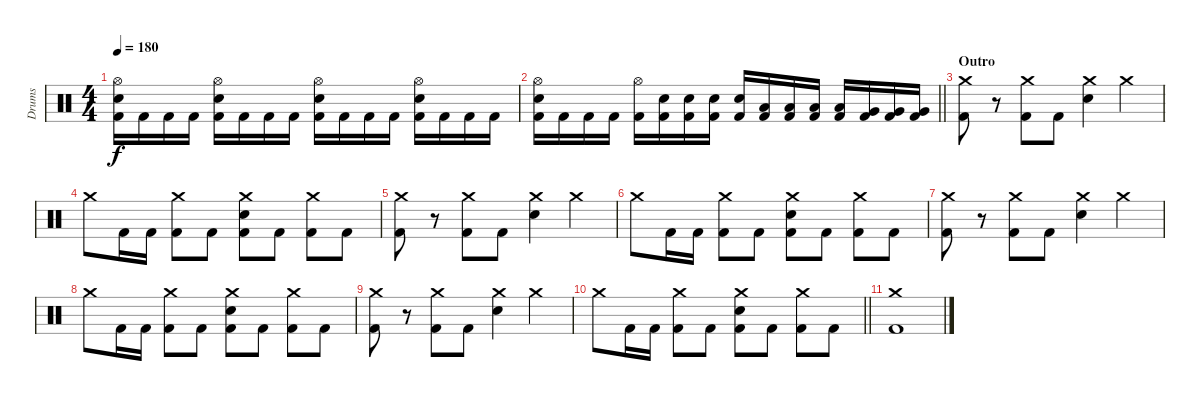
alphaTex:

\track ("Drums" "Drums") {instrument percussion}
\staff {score}
\articulation defaults
\ts (4 4)
\tempo 180
\clef neutral
\ks c
("Hi-Hat (open)" "Snare (hit) 2" "Kick (hit) 2").16{dy f} "Kick (hit) 2".16 "Kick (hit) 2".16 "Kick (hit) 2".16 ("Hi-Hat (open)" "Snare (hit) 2" "Kick (hit) 2").16 "Kick (hit) 2".16 "Kick (hit) 2".16 "Kick (hit) 2".16 ("Hi-Hat (open)" "Snare (hit) 2" "Kick (hit) 2").16 "Kick (hit) 2".16 "Kick (hit) 2".16 "Kick (hit) 2".16 ("Hi-Hat (open)" "Snare (hit) 2" "Kick (hit) 2").16 "Kick (hit) 2".16 "Kick (hit) 2".16 "Kick (hit) 2".16 |
\barLineRight lightlight
("Hi-Hat (open)" "Snare (hit) 2" "Kick (hit) 2").16 "Kick (hit) 2".16 "Kick (hit) 2".16 "Kick (hit) 2".16 ("Hi-Hat (open)" "Kick (hit) 2").16 ("Snare (hit) 2" "Kick (hit) 2").16 ("Snare (hit) 2" "Kick (hit) 2").16 ("Snare (hit) 2" "Kick (hit) 2").16 ("Snare (hit) 2" "Kick (hit) 2").16 ("Low Tom (hit)" "Kick (hit) 2").16 ("Low Tom (hit)" "Kick (hit) 2").16 ("Low Tom (hit)" "Kick (hit) 2").16 ("Low Tom (hit)" "Kick (hit) 2").16 ("Very Low Tom (hit)" "Kick (hit) 2").16 ("Very Low Tom (hit)" "Kick (hit) 2").16 ("Very Low Tom (hit)" "Kick (hit) 2").16 |
\section ("" "Outro")
("Crash medium (hit)" "Kick (hit) 2").8 r.8 ("Crash medium (hit)" "Kick (hit) 2").8 "Kick (hit) 2".8 ("Crash medium (hit)" "Snare (hit) 2").4 "Crash medium (hit)".4 |
"Crash medium (hit)".8 "Kick (hit) 2".16 "Kick (hit) 2".16 ("Crash medium (hit)" "Kick (hit) 2").8 "Kick (hit) 2".8 ("Crash medium (hit)" "Snare (hit) 2" "Kick (hit) 2").8 "Kick (hit) 2".8 ("Crash medium (hit)" "Kick (hit) 2").8 "Kick (hit) 2".8 |
("Crash medium (hit)" "Kick (hit) 2").8 r.8 ("Crash medium (hit)" "Kick (hit) 2").8 "Kick (hit) 2".8 ("Crash medium (hit)" "Snare (hit) 2").4 "Crash medium (hit)".4 |
"Crash medium (hit)".8 "Kick (hit) 2".16 "Kick (hit) 2".16 ("Crash medium (hit)" "Kick (hit) 2").8 "Kick (hit) 2".8 ("Crash medium (hit)" "Snare (hit) 2" "Kick (hit) 2").8 "Kick (hit) 2".8 ("Crash medium (hit)" "Kick (hit) 2").8 "Kick (hit) 2".8 |
("Crash medium (hit)" "Kick (hit) 2").8 r.8 ("Crash medium (hit)" "Kick (hit) 2").8 "Kick (hit) 2".8 ("Crash medium (hit)" "Snare (hit) 2").4 "Crash medium (hit)".4 |
"Crash medium (hit)".8 "Kick (hit) 2".16 "Kick (hit) 2".16 ("Crash medium (hit)" "Kick (hit) 2").8 "Kick (hit) 2".8 ("Crash medium (hit)" "Snare (hit) 2" "Kick (hit) 2").8 "Kick (hit) 2".8 ("Crash medium (hit)" "Kick (hit) 2").8 "Kick (hit) 2".8 |
("Crash medium (hit)" "Kick (hit) 2").8 r.8 ("Crash medium (hit)" "Kick (hit) 2").8 "Kick (hit) 2".8 ("Crash medium (hit)" "Snare (hit) 2").4 "Crash medium (hit)".4 |
\barLineRight lightlight "Crash medium (hit)".8 "Kick (hit) 2".16 "Kick (hit) 2".16
("Crash medium (hit)" "Kick (hit) 2").8 "Kick (hit) 2".8 ("Crash medium (hit)" "Snare (hit) 2" "Kick (hit) 2").8 "Kick (hit) 2".8 ("Crash medium (hit)" "Kick (hit) 2").8 "Kick (hit) 2".8 |
("Crash medium (hit)" "Kick (hit) 2").1
